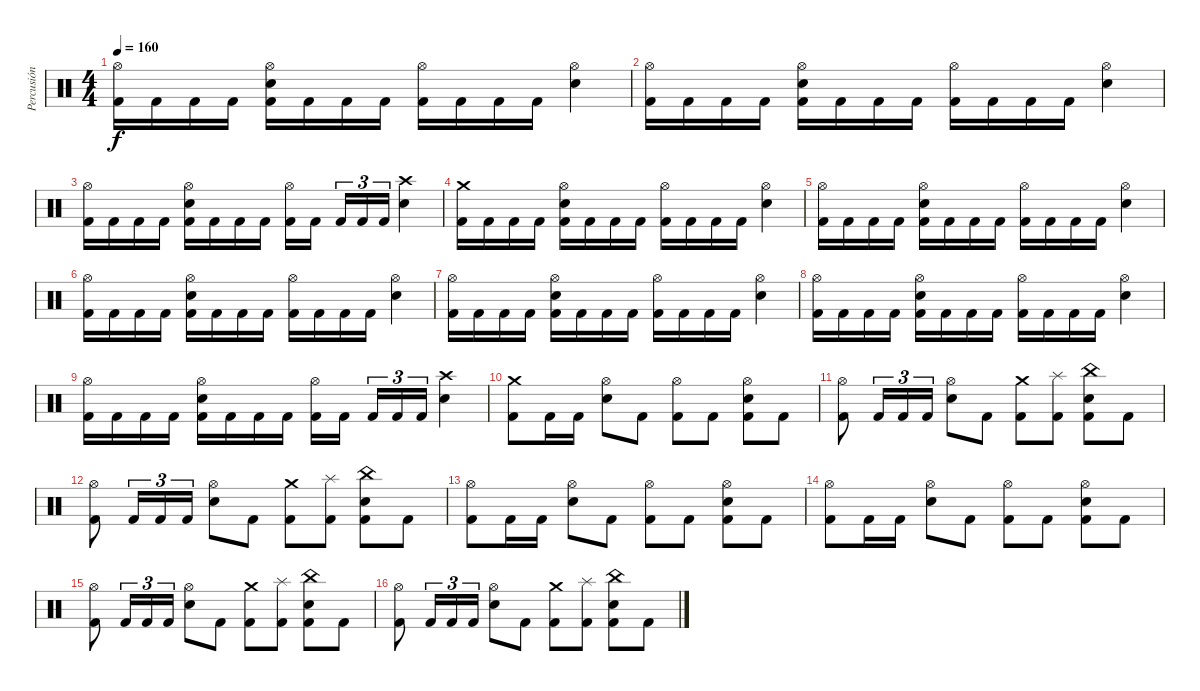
\track ("Percusión" "Percusión") {instrument percussion}
\staff {score}
\articulation defaults
\ts (4 4)
\tempo 160
\clef neutral
\ks c
("Hi-Hat (open)" "Kick (hit) 2").16{dy f} "Kick (hit) 2".16 "Kick (hit) 2".16 "Kick (hit) 2".16 ("Hi-Hat (open)" "Electric Snare (hit)" "Kick (hit) 2").16 "Kick (hit) 2".16 "Kick (hit) 2".16 "Kick (hit) 2".16 ("Hi-Hat (open)" "Kick (hit) 2").16 "Kick (hit) 2".16 "Kick (hit) 2".16 "Kick (hit) 2".16 ("Hi-Hat (open)" "Electric Snare (hit)").4 |
("Hi-Hat (open)" "Kick (hit) 2").16 "Kick (hit) 2".16 "Kick (hit) 2".16 "Kick (hit) 2".16 ("Hi-Hat (open)" "Electric Snare (hit)" "Kick (hit) 2").16 "Kick (hit) 2".16 "Kick (hit) 2".16 "Kick (hit) 2".16 ("Hi-Hat (open)" "Kick (hit) 2").16 "Kick (hit) 2".16 "Kick (hit) 2".16 "Kick (hit) 2".16 ("Hi-Hat (open)" "Electric Snare (hit)").4 |
("Hi-Hat (open)" "Kick (hit) 2").16 "Kick (hit) 2".16 "Kick (hit) 2".16 "Kick (hit) 2".16 ("Hi-Hat (open)" "Electric Snare (hit)" "Kick (hit) 2").16 "Kick (hit) 2".16 "Kick (hit) 2".16 "Kick (hit) 2".16 ("Hi-Hat (open)" "Kick (hit) 2").16 "Kick (hit) 2".16{beam splitsecondary} "Kick (hit) 2".16{tu (3 2)} "Kick (hit) 2".16{tu (3 2)} "Kick (hit) 2".16{tu (3 2)} ("Crash high (hit)" "Electric Snare (hit)").4 |
("Crash medium (hit)" "Kick (hit) 2").16 "Kick (hit) 2".16 "Kick (hit) 2".16 "Kick (hit) 2".16 ("Hi-Hat (open)" "Electric Snare (hit)" "Kick (hit) 2").16 "Kick (hit) 2".16 "Kick (hit) 2".16 "Kick (hit) 2".16 ("Hi-Hat (open)" "Kick (hit) 2").16 "Kick (hit) 2".16 "Kick (hit) 2".16 "Kick (hit) 2".16 ("Hi-Hat (open)" "Electric Snare (hit)").4 |
("Hi-Hat (open)" "Kick (hit) 2").16 "Kick (hit) 2".16 "Kick (hit) 2".16 "Kick (hit) 2".16 ("Hi-Hat (open)" "Electric Snare (hit)" "Kick (hit) 2").16 "Kick (hit) 2".16 "Kick (hit) 2".16 "Kick (hit) 2".16 ("Hi-Hat (open)" "Kick (hit) 2").16 "Kick (hit) 2".16 "Kick (hit) 2".16 "Kick (hit) 2".16 ("Hi-Hat (open)" "Electric Snare (hit)").4 |
("Hi-Hat (open)" "Kick (hit) 2").16 "Kick (hit) 2".16 "Kick (hit) 2".16 "Kick (hit) 2".16 ("Hi-Hat (open)" "Electric Snare (hit)" "Kick (hit) 2").16 "Kick (hit) 2".16 "Kick (hit) 2".16 "Kick (hit) 2".16 ("Hi-Hat (open)" "Kick (hit) 2").16 "Kick (hit) 2".16 "Kick (hit) 2".16 "Kick (hit) 2".16 ("Hi-Hat (open)" "Electric Snare (hit)").4 |
("Hi-Hat (open)" "Kick (hit) 2").16 "Kick (hit) 2".16 "Kick (hit) 2".16 "Kick (hit) 2".16 ("Hi-Hat (open)" "Electric Snare (hit)" "Kick (hit) 2").16 "Kick (hit) 2".16 "Kick (hit) 2".16 "Kick (hit) 2".16 ("Hi-Hat (open)" "Kick (hit) 2").16 "Kick (hit) 2".16 "Kick (hit) 2".16 "Kick (hit) 2".16 ("Hi-Hat (open)" "Electric Snare (hit)").4 |
("Hi-Hat (open)" "Kick (hit) 2").16 "Kick (hit) 2".16 "Kick (hit) 2".16 "Kick (hit) 2".16 ("Hi-Hat (open)" "Electric Snare (hit)" "Kick (hit) 2").16 "Kick (hit) 2".16 "Kick (hit) 2".16 "Kick (hit) 2".16 ("Hi-Hat (open)" "Kick (hit) 2").16 "Kick (hit) 2".16 "Kick (hit) 2".16 "Kick (hit) 2".16 ("Hi-Hat (open)" "Electric Snare (hit)").4 |
("Hi-Hat (open)" "Kick (hit) 2").16 "Kick (hit) 2".16 "Kick (hit) 2".16 "Kick (hit) 2".16 ("Hi-Hat (open)" "Electric Snare (hit)" "Kick (hit) 2").16 "Kick (hit) 2".16 "Kick (hit) 2".16 "Kick (hit) 2".16 ("Hi-Hat (open)" "Kick (hit) 2").16 "Kick (hit) 2".16{beam splitsecondary} "Kick (hit) 2".16{tu (3 2)} "Kick (hit) 2".16{tu (3 2)} "Kick (hit) 2".16{tu (3 2)} ("Crash high (hit)" "Electric Snare (hit)").4 |
("Crash medium (hit)" "Kick (hit) 2").8 "Kick (hit) 2".16 "Kick (hit) 2".16 ("Hi-Hat (open)" "Electric Snare (hit)").8 "Kick (hit) 2".8 ("Hi-Hat (open)" "Kick (hit) 2").8 "Kick (hit) 2".8 ("Hi-Hat (open)" "Electric Snare (hit)" "Kick (hit) 2").8 "Kick (hit) 2".8 |
("Hi-Hat (open)" "Kick (hit) 2").8 "Kick (hit) 2".16{tu (3 2)} "Kick (hit) 2".16{tu (3 2)} "Kick (hit) 2".16{tu (3 2)} ("Hi-Hat (open)" "Electric Snare (hit)").8 "Kick (hit) 2".8 ("Crash medium (hit)" "Kick (hit) 2").8 ("Splash (hit)" "Kick (hit) 2").8 ("China (hit)" "Electric Snare (hit)" "Kick (hit) 2").8 "Kick (hit) 2".8 |
("Hi-Hat (open)" "Kick (hit) 2").8 "Kick (hit) 2".16{tu (3 2)} "Kick (hit) 2".16{tu (3 2)} "Kick (hit) 2".16{tu (3 2)} ("Hi-Hat (open)" "Electric Snare (hit)").8 "Kick (hit) 2".8 ("Crash medium (hit)" "Kick (hit) 2").8 ("Splash (hit)" "Kick (hit) 2").8 ("China (hit)" "Electric Snare (hit)" "Kick (hit) 2").8 "Kick (hit) 2".8 |
("Hi-Hat (open)" "Kick (hit) 2").8 "Kick (hit) 2".16 "Kick (hit) 2".16 ("Hi-Hat (open)" "Electric Snare (hit)").8 "Kick (hit) 2".8 ("Hi-Hat (open)" "Kick (hit) 2").8 "Kick (hit) 2".8 ("Hi-Hat (open)" "Electric Snare (hit)" "Kick (hit) 2").8 "Kick (hit) 2".8 |
("Hi-Hat (open)" "Kick (hit) 2").8 "Kick (hit) 2".16 "Kick (hit) 2".16 ("Hi-Hat (open)" "Electric Snare (hit)").8 "Kick (hit) 2".8 ("Hi-Hat (open)" "Kick (hit) 2").8 "Kick (hit) 2".8 ("Hi-Hat (open)" "Electric Snare (hit)" "Kick (hit) 2").8 "Kick (hit) 2".8 |
("Hi-Hat (open)" "Kick (hit) 2").8 "Kick (hit) 2".16{tu (3 2)} "Kick (hit) 2".16{tu (3 2)} "Kick (hit) 2".16{tu (3 2)} ("Hi-Hat (open)" "Electric Snare (hit)").8 "Kick (hit) 2".8 ("Crash medium (hit)" "Kick (hit) 2").8 ("Splash (hit)" "Kick (hit) 2").8 ("China (hit)" "Electric Snare (hit)" "Kick (hit) 2").8 "Kick (hit) 2".8 |
("Hi-Hat (open)" "Kick (hit) 2").8 "Kick (hit) 2".16{tu (3 2)} "Kick (hit) 2".16{tu (3 2)} "Kick (hit) 2".16{tu (3 2)} ("Hi-Hat (open)" "Electric Snare (hit)").8 "Kick (hit) 2".8 ("Crash medium (hit)" "Kick (hit) 2").8 ("Splash (hit)" "Kick (hit) 2").8 ("China (hit)" "Electric Snare (hit)" "Kick (hit) 2").8 "Kick (hit) 2".8
